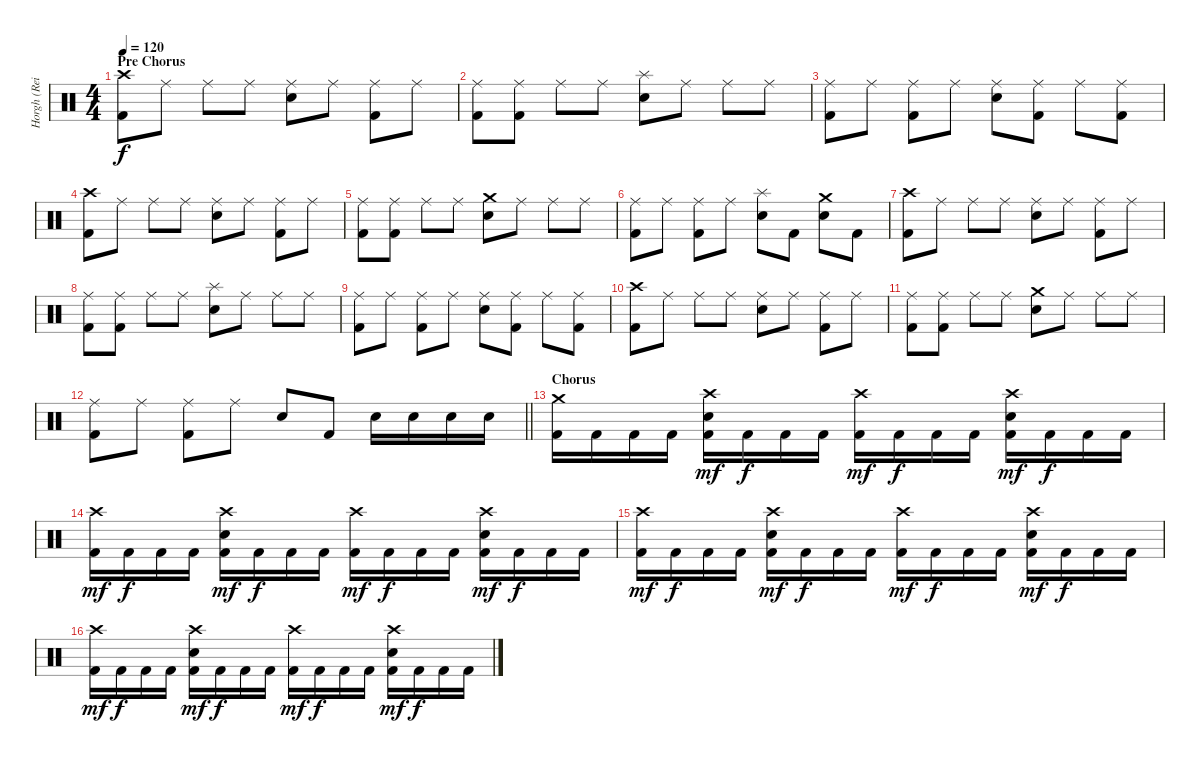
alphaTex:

\track ("Horgh (Reidar Horghagen)" "Horgh (Rei") {instrument percussion}
\staff {score}
\articulation defaults
\ts (4 4)
\section ("" "Pre Chorus")
\tempo 120
\clef neutral
\ks c
("Crash high (hit)" "Kick (hit) 2").8{dy f} "Ride (middle)".8 "Ride (middle)".8 "Ride (middle)".8 ("Ride (middle)" "Snare (hit) 2").8 "Ride (middle)".8 ("Ride (middle)" "Kick (hit) 2").8 "Ride (middle)".8 |
("Ride (middle)" "Kick (hit) 2").8 ("Ride (middle)" "Kick (hit) 2").8 "Ride (middle)".8 "Ride (middle)".8 ("Splash (hit)" "Snare (hit) 2").8 "Ride (middle)".8 "Ride (middle)".8 "Ride (middle)".8 |
("Ride (middle)" "Kick (hit) 2").8 "Ride (middle)".8 ("Ride (middle)" "Kick (hit) 2").8 "Ride (middle)".8 ("Ride (middle)" "Snare (hit) 2").8 ("Ride (middle)" "Kick (hit) 2").8 "Ride (middle)".8 ("Ride (middle)" "Kick (hit) 2").8 |
("Crash high (hit)" "Kick (hit) 2").8 "Ride (middle)".8 "Ride (middle)".8 "Ride (middle)".8 ("Ride (middle)" "Snare (hit) 2").8 "Ride (middle)".8 ("Ride (middle)" "Kick (hit) 2").8 "Ride (middle)".8 |
("Ride (middle)" "Kick (hit) 2").8 ("Ride (middle)" "Kick (hit) 2").8 "Ride (middle)".8 "Ride (middle)".8 ("Crash medium (hit)" "Snare (hit) 2").8 "Ride (middle)".8 "Ride (middle)".8 "Ride (middle)".8 |
("Ride (middle)" "Kick (hit) 2").8 "Ride (middle)".8 ("Ride (middle)" "Kick (hit) 2").8 "Ride (middle)".8 ("Splash (hit)" "Snare (hit) 2").8 "Kick (hit) 2".8 ("Crash medium (hit)" "Snare (hit) 2").8 "Kick (hit) 2".8 |
("Crash high (hit)" "Kick (hit) 2").8 "Ride (middle)".8 "Ride (middle)".8 "Ride (middle)".8 ("Ride (middle)" "Snare (hit) 2").8 "Ride (middle)".8 ("Ride (middle)" "Kick (hit) 2").8 "Ride (middle)".8 |
("Ride (middle)" "Kick (hit) 2").8 ("Ride (middle)" "Kick (hit) 2").8 "Ride (middle)".8 "Ride (middle)".8 ("Splash (hit)" "Snare (hit) 2").8 "Ride (middle)".8 "Ride (middle)".8 "Ride (middle)".8 |
("Ride (middle)" "Kick (hit) 2").8 "Ride (middle)".8 ("Ride (middle)" "Kick (hit) 2").8 "Ride (middle)".8 ("Ride (middle)" "Snare (hit) 2").8 ("Ride (middle)" "Kick (hit) 2").8 "Ride (middle)".8 ("Ride (middle)" "Kick (hit) 2").8 |
("Crash high (hit)" "Kick (hit) 2").8 "Ride (middle)".8 "Ride (middle)".8 "Ride (middle)".8 ("Ride (middle)" "Snare (hit) 2").8 "Ride (middle)".8 ("Ride (middle)" "Kick (hit) 2").8 "Ride (middle)".8 |
("Ride (middle)" "Kick (hit) 2").8 ("Ride (middle)" "Kick (hit) 2").8 "Ride (middle)".8 "Ride (middle)".8 ("Crash medium (hit)" "Snare (hit) 2").8 "Ride (middle)".8 "Ride (middle)".8 "Ride (middle)".8 |
\barLineRight lightlight
("Ride (middle)" "Kick (hit) 2").8 "Ride (middle)".8 ("Ride (middle)" "Kick (hit) 2").8 "Ride (middle)".8 "Snare (hit) 2".8 "Kick (hit) 2".8 "Snare (hit) 2".16 "Snare (hit) 2".16 "Snare (hit) 2".16 "Snare (hit) 2".16 |
\section ("" "Chorus")
("Crash medium (hit)" "Kick (hit) 2").16 "Kick (hit) 2".16 "Kick (hit) 2".16 "Kick (hit) 2".16 ("Crash high (hit)" "Snare (hit) 2" "Kick (hit) 2").16{dy mf} "Kick (hit) 2".16{dy f} "Kick (hit) 2".16 "Kick (hit) 2".16 ("Crash high (hit)" "Kick (hit) 2").16{dy mf} "Kick (hit) 2".16{dy f} "Kick (hit) 2".16 "Kick (hit) 2".16 ("Crash high (hit)" "Snare (hit) 2" "Kick (hit) 2").16{dy mf} "Kick (hit) 2".16{dy f} "Kick (hit) 2".16 "Kick (hit) 2".16 |
("Crash high (hit)" "Kick (hit) 2").16{dy mf} "Kick (hit) 2".16{dy f} "Kick (hit) 2".16 "Kick (hit) 2".16 ("Crash high (hit)" "Snare (hit) 2" "Kick (hit) 2").16{dy mf} "Kick (hit) 2".16{dy f} "Kick (hit) 2".16 "Kick (hit) 2".16 ("Crash high (hit)" "Kick (hit) 2").16{dy mf} "Kick (hit) 2".16{dy f} "Kick (hit) 2".16 "Kick (hit) 2".16 ("Crash high (hit)" "Snare (hit) 2" "Kick (hit) 2").16{dy mf} "Kick (hit) 2".16{dy f} "Kick (hit) 2".16 "Kick (hit) 2".16 |
("Crash high (hit)" "Kick (hit) 2").16{dy mf} "Kick (hit) 2".16{dy f} "Kick (hit) 2".16 "Kick (hit) 2".16 ("Crash high (hit)" "Snare (hit) 2" "Kick (hit) 2").16{dy mf} "Kick (hit) 2".16{dy f} "Kick (hit) 2".16 "Kick (hit) 2".16 ("Crash high (hit)" "Kick (hit) 2").16{dy mf} "Kick (hit) 2".16{dy f} "Kick (hit) 2".16 "Kick (hit) 2".16 ("Crash high (hit)" "Snare (hit) 2" "Kick (hit) 2").16{dy mf} "Kick (hit) 2".16{dy f} "Kick (hit) 2".16 "Kick (hit) 2".16 |
("Crash high (hit)" "Kick (hit) 2").16{dy mf} "Kick (hit) 2".16{dy f} "Kick (hit) 2".16 "Kick (hit) 2".16 ("Crash high (hit)" "Snare (hit) 2" "Kick (hit) 2").16{dy mf} "Kick (hit) 2".16{dy f} "Kick (hit) 2".16 "Kick (hit) 2".16 ("Crash high (hit)" "Kick (hit) 2").16{dy mf} "Kick (hit) 2".16{dy f} "Kick (hit) 2".16 "Kick (hit) 2".16 ("Crash high (hit)" "Snare (hit) 2" "Kick (hit) 2").16{dy mf} "Kick (hit) 2".16{dy f} "Kick (hit) 2".16 "Kick (hit) 2".16
